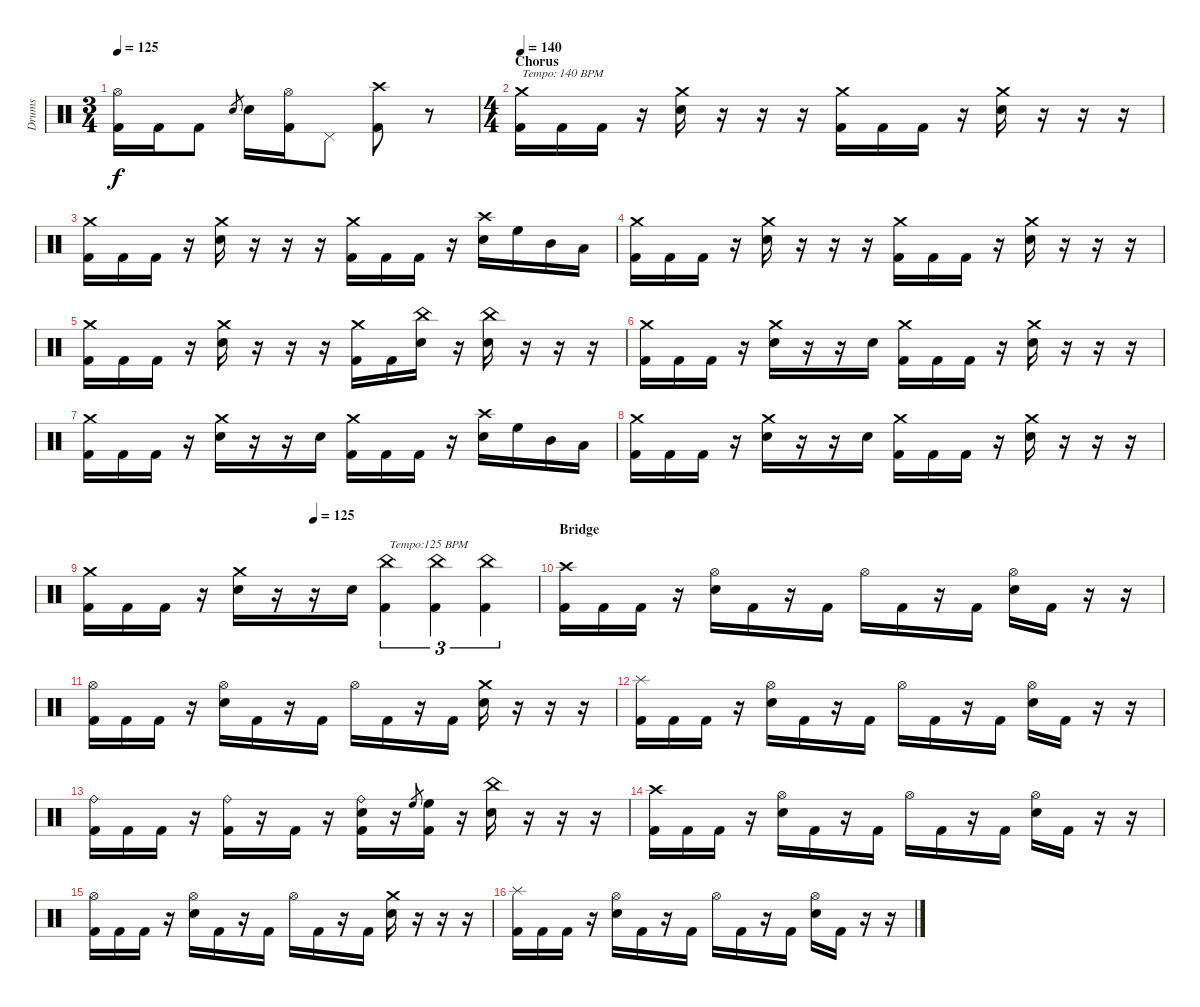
\track ("Drums" "Drums") {instrument percussion}
\staff {score}
\articulation defaults
\ts (3 4)
\tempo 125
\clef neutral
\ks c
("Hi-Hat (open)" "Kick (hit) 2").16{dy f volume 14} "Kick (hit) 2".16 "Kick (hit) 2".8 "Electric Snare (hit)".8{gr} "Electric Snare (hit)".16 ("Hi-Hat (open)" "Kick (hit) 2").16 "Pedal Hi-Hat (hit)".8 ("Crash high (hit)" "Kick (hit) 2").8 r.8{volume 0} |
\ts (4 4)
\section ("" "Chorus")
\tempo 140
("Crash medium (hit)" "Kick (hit) 2").16{txt "Tempo: 140 BPM" volume 14} "Kick (hit) 2".16 "Kick (hit) 2".16 r.16 ("Crash medium (hit)" "Electric Snare (hit)").16 r.16 r.16 r.16 ("Crash medium (hit)" "Kick (hit) 2").16 "Kick (hit) 2".16 "Kick (hit) 2".16 r.16 ("Crash medium (hit)" "Electric Snare (hit)").16 r.16 r.16 r.16 |
("Crash medium (hit)" "Kick (hit) 2").16 "Kick (hit) 2".16 "Kick (hit) 2".16 r.16 ("Crash medium (hit)" "Electric Snare (hit)").16 r.16 r.16 r.16 ("Crash medium (hit)" "Kick (hit) 2").16 "Kick (hit) 2".16 "Kick (hit) 2".16 r.16 ("Crash high (hit)" "Electric Snare (hit)").16 "High Floor Tom (hit)".16 "Mid Tom (hit)".16 "Low Tom (hit)".16 |
("Crash medium (hit)" "Kick (hit) 2").16 "Kick (hit) 2".16 "Kick (hit) 2".16 r.16 ("Crash medium (hit)" "Electric Snare (hit)").16 r.16 r.16 r.16 ("Crash medium (hit)" "Kick (hit) 2").16 "Kick (hit) 2".16 "Kick (hit) 2".16 r.16 ("Crash medium (hit)" "Electric Snare (hit)").16 r.16 r.16 r.16 |
("Crash medium (hit)" "Kick (hit) 2").16 "Kick (hit) 2".16 "Kick (hit) 2".16 r.16 ("Crash medium (hit)" "Electric Snare (hit)").16 r.16 r.16 r.16 ("Crash medium (hit)" "Kick (hit) 2").16 "Kick (hit) 2".16 ("China (hit)" "Electric Snare (hit)").16 r.16 ("China (hit)" "Electric Snare (hit)").16 r.16 r.16 r.16 |
("Crash medium (hit)" "Kick (hit) 2").16 "Kick (hit) 2".16 "Kick (hit) 2".16 r.16 ("Crash medium (hit)" "Electric Snare (hit)").16 r.16 r.16 "Electric Snare (hit)".16 ("Crash medium (hit)" "Kick (hit) 2").16 "Kick (hit) 2".16 "Kick (hit) 2".16 r.16 ("Crash medium (hit)" "Electric Snare (hit)").16 r.16 r.16 r.16 |
("Crash medium (hit)" "Kick (hit) 2").16 "Kick (hit) 2".16 "Kick (hit) 2".16 r.16 ("Crash medium (hit)" "Electric Snare (hit)").16 r.16 r.16 "Electric Snare (hit)".16 ("Crash medium (hit)" "Kick (hit) 2").16 "Kick (hit) 2".16 "Kick (hit) 2".16 r.16 ("Crash high (hit)" "Electric Snare (hit)").16 "High Floor Tom (hit)".16 "Mid Tom (hit)".16 "Low Tom (hit)".16 |
("Crash medium (hit)" "Kick (hit) 2").16 "Kick (hit) 2".16 "Kick (hit) 2".16 r.16 ("Crash medium (hit)" "Electric Snare (hit)").16 r.16 r.16 "Electric Snare (hit)".16 ("Crash medium (hit)" "Kick (hit) 2").16 "Kick (hit) 2".16 "Kick (hit) 2".16 r.16 ("Crash medium (hit)" "Electric Snare (hit)").16 r.16 r.16 r.16 |
\tempo (125 0.5)
("Crash medium (hit)" "Kick (hit) 2").16 "Kick (hit) 2".16 "Kick (hit) 2".16 r.16 ("Crash medium (hit)" "Electric Snare (hit)").16 r.16 r.16 "Electric Snare (hit)".16 ("China (hit)" "Kick (hit) 2").4{tu (3 2) txt "Tempo:125 BPM"} ("China (hit)" "Kick (hit) 2").4{tu (3 2)} ("China (hit)" "Kick (hit) 2").4{tu (3 2)} |
\section ("" "Bridge")
("Crash high (hit)" "Kick (hit) 2").16 "Kick (hit) 2".16 "Kick (hit) 2".16 r.16 ("Hi-Hat (open)" "Electric Snare (hit)").16 "Kick (hit) 2".16 r.16 "Kick (hit) 2".16 "Hi-Hat (open)".16 "Kick (hit) 2".16 r.16 "Kick (hit) 2".16 ("Hi-Hat (open)" "Electric Snare (hit)").16 "Kick (hit) 2".16 r.16 r.16 |
("Hi-Hat (open)" "Kick (hit) 2").16 "Kick (hit) 2".16 "Kick (hit) 2".16 r.16 ("Hi-Hat (open)" "Electric Snare (hit)").16 "Kick (hit) 2".16 r.16 "Kick (hit) 2".16 "Hi-Hat (open)".16 "Kick (hit) 2".16 r.16 "Kick (hit) 2".16 ("Crash medium (hit)" "Electric Snare (hit)").16 r.16 r.16 r.16 |
("Splash (hit)" "Kick (hit) 2").16 "Kick (hit) 2".16 "Kick (hit) 2".16 r.16 ("Hi-Hat (open)" "Electric Snare (hit)").16 "Kick (hit) 2".16 r.16 "Kick (hit) 2".16 "Hi-Hat (open)".16 "Kick (hit) 2".16 r.16 "Kick (hit) 2".16 ("Hi-Hat (open)" "Electric Snare (hit)").16 "Kick (hit) 2".16 r.16 r.16 |
("Ride (bell)" "Kick (hit) 2").16 "Kick (hit) 2".16 "Kick (hit) 2".16 r.16 ("Ride (bell)" "Kick (hit) 2").16 r.16 "Kick (hit) 2".16 r.16 ("Ride (bell)" "Electric Snare (hit)" "Kick (hit) 2").16 r.16 "High Floor Tom (hit)".8{gr} ("High Floor Tom (hit)" "Kick (hit) 2").16 r.16 ("China (hit)" "Electric Snare (hit)").16 r.16 r.16 r.16 |
("Crash high (hit)" "Kick (hit) 2").16 "Kick (hit) 2".16 "Kick (hit) 2".16 r.16 ("Hi-Hat (open)" "Electric Snare (hit)").16 "Kick (hit) 2".16 r.16 "Kick (hit) 2".16 "Hi-Hat (open)".16 "Kick (hit) 2".16 r.16 "Kick (hit) 2".16 ("Hi-Hat (open)" "Electric Snare (hit)").16 "Kick (hit) 2".16 r.16 r.16 |
("Hi-Hat (open)" "Kick (hit) 2").16 "Kick (hit) 2".16 "Kick (hit) 2".16 r.16 ("Hi-Hat (open)" "Electric Snare (hit)").16 "Kick (hit) 2".16 r.16 "Kick (hit) 2".16 "Hi-Hat (open)".16 "Kick (hit) 2".16 r.16 "Kick (hit) 2".16 ("Crash medium (hit)" "Electric Snare (hit)").16 r.16 r.16 r.16 |
("Splash (hit)" "Kick (hit) 2").16 "Kick (hit) 2".16 "Kick (hit) 2".16 r.16 ("Hi-Hat (open)" "Electric Snare (hit)").16 "Kick (hit) 2".16 r.16 "Kick (hit) 2".16 "Hi-Hat (open)".16 "Kick (hit) 2".16 r.16 "Kick (hit) 2".16 ("Hi-Hat (open)" "Electric Snare (hit)").16 "Kick (hit) 2".16 r.16 r.16
